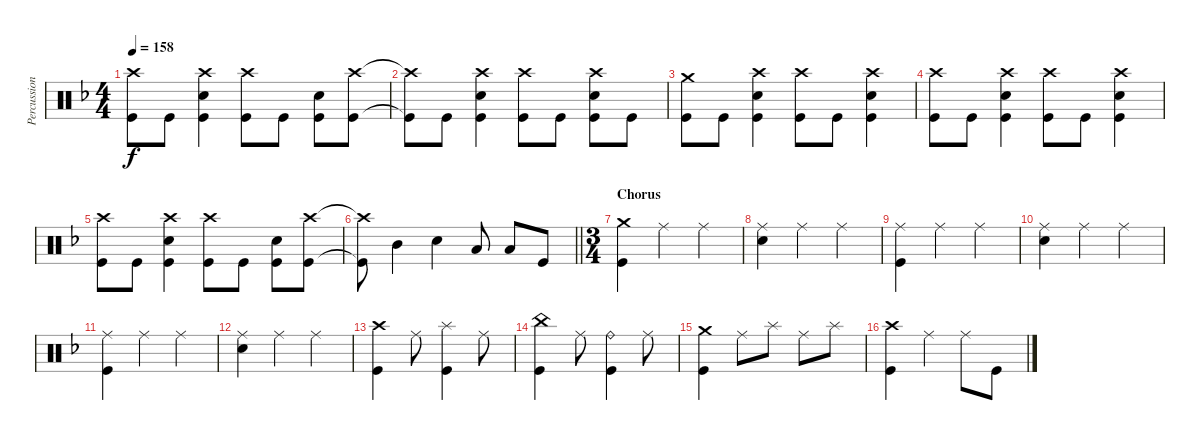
\track ("Percussion" "Percussion") {instrument percussion}
\staff {score}
\articulation defaults
\ts (4 4)
\tempo 158
\clef neutral
\ks f
("Crash high (hit)" "Kick (hit)").8{dy f} "Kick (hit)".8 ("Crash high (hit)" "Electric Snare (hit)" "Kick (hit)").4 ("Crash high (hit)" "Kick (hit)").8 "Kick (hit)".8 ("Electric Snare (hit)" "Kick (hit)").8 ("Crash high (hit)" "Kick (hit)").8 |
("Crash high (hit)"{t} "Kick (hit)"{t}).8 "Kick (hit)".8 ("Crash high (hit)" "Electric Snare (hit)" "Kick (hit)").4 ("Crash high (hit)" "Kick (hit)").8 "Kick (hit)".8 ("Crash high (hit)" "Electric Snare (hit)" "Kick (hit)").8 "Kick (hit)".8 |
("Crash medium (hit)" "Kick (hit)").8 "Kick (hit)".8 ("Crash high (hit)" "Electric Snare (hit)" "Kick (hit)").4 ("Crash high (hit)" "Kick (hit)").8 "Kick (hit)".8 ("Crash high (hit)" "Electric Snare (hit)" "Kick (hit)").4 |
("Crash high (hit)" "Kick (hit)").8 "Kick (hit)".8 ("Crash high (hit)" "Electric Snare (hit)" "Kick (hit)").4 ("Crash high (hit)" "Kick (hit)").8 "Kick (hit)".8 ("Crash high (hit)" "Electric Snare (hit)" "Kick (hit)").4 |
("Crash high (hit)" "Kick (hit)").8 "Kick (hit)".8 ("Crash high (hit)" "Electric Snare (hit)" "Kick (hit)").4 ("Crash high (hit)" "Kick (hit)").8 "Kick (hit)".8 ("Electric Snare (hit)" "Kick (hit)").8 ("Crash high (hit)" "Kick (hit)").8 |
\barLineRight lightlight
("Crash high (hit)"{t} "Kick (hit)"{t}).8 "Mid Tom (hit)".4 "Electric Snare (hit)".4 "Low Tom (hit)".8 "Low Tom (hit)".8 "Kick (hit)".8 |
\ts (3 4)
\section ("" "Chorus")
("Crash medium (hit)" "Kick (hit)").4 "Ride (middle)".4 "Ride (middle)".4 |
("Ride (middle)" "Electric Snare (hit)").4 "Ride (middle)".4 "Ride (middle)".4 |
("Ride (middle)" "Kick (hit)").4 "Ride (middle)".4 "Ride (middle)".4 |
("Ride (middle)" "Electric Snare (hit)").4 "Ride (middle)".4 "Ride (middle)".4 |
("Ride (middle)" "Kick (hit)").4 "Ride (middle)".4 "Ride (middle)".4 |
("Ride (middle)" "Electric Snare (hit)").4 "Ride (middle)".4 "Ride (middle)".4 |
("Crash high (hit)" "Kick (hit)").4 "Ride (middle)".8 ("Splash (hit)" "Kick (hit)").4 "Ride (middle)".8 |
("China (hit)" "Kick (hit)").4 "Ride (middle)".8 ("Ride (bell)" "Kick (hit)").4 "Ride (middle)".8 |
("Crash medium (hit)" "Kick (hit)").4 "Ride (middle)".8 "Splash (hit)".8 "Ride (middle)".8 "Splash (hit)".8 |
("Crash high (hit)" "Kick (hit)").4 "Ride (middle)".4 "Ride (middle)".8 "Kick (hit)".8
